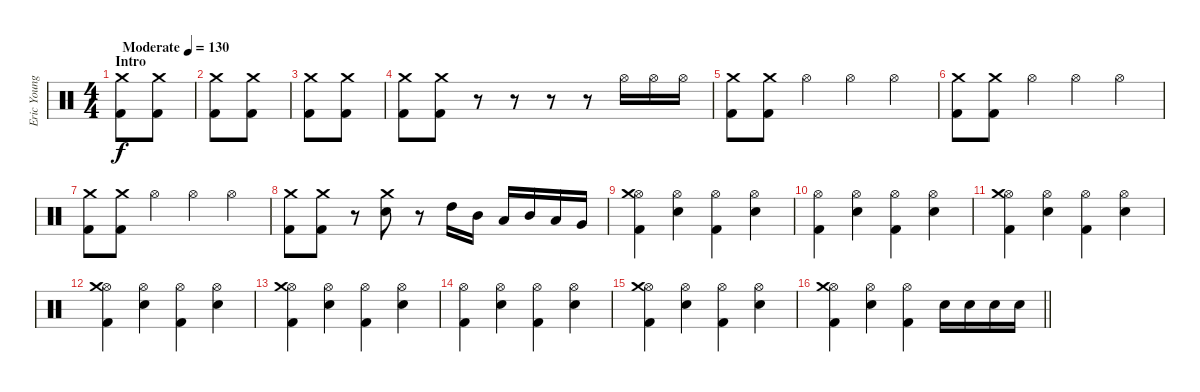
\track ("Eric Young (Drums)" "Eric Young") {instrument percussion}
\staff {score}
\articulation defaults
\ts (4 4)
\section ("" "Intro")
\tempo (130 "Moderate")
\clef neutral
\ks c
("Kick (hit) 2" "Crash medium (hit)").8{dy f} ("Kick (hit) 2" "Crash medium (hit)").8 |
("Kick (hit) 2" "Crash medium (hit)").8 ("Kick (hit) 2" "Crash medium (hit)").8 |
("Kick (hit) 2" "Crash medium (hit)").8 ("Kick (hit) 2" "Crash medium (hit)").8 |
("Kick (hit) 2" "Crash medium (hit)").8 ("Kick (hit) 2" "Crash medium (hit)").8 r.8 r.8 r.8 r.8 "Hi-Hat (open)".16 "Hi-Hat (open)".16 "Hi-Hat (open)".16 |
("Kick (hit) 2" "Crash medium (hit)").8 ("Kick (hit) 2" "Crash medium (hit)").8 "Hi-Hat (open)".4 "Hi-Hat (open)".4 "Hi-Hat (open)".4 |
("Kick (hit) 2" "Crash medium (hit)").8 ("Kick (hit) 2" "Crash medium (hit)").8 "Hi-Hat (open)".4 "Hi-Hat (open)".4 "Hi-Hat (open)".4 |
("Kick (hit) 2" "Crash medium (hit)").8 ("Kick (hit) 2" "Crash medium (hit)").8 "Hi-Hat (open)".4 "Hi-Hat (open)".4 "Hi-Hat (open)".4 |
("Kick (hit) 2" "Crash medium (hit)").8 ("Kick (hit) 2" "Crash medium (hit)").8 r.8 ("Snare (hit) 2" "Crash medium (hit)").8 r.8 "High Tom (hit)".16 "Mid Tom (hit)".16 "Low Tom (hit)".16 "Mid Tom (hit)".16 "Low Tom (hit)".16 "Very Low Tom (hit)".16 |
("Hi-Hat (open)" "Kick (hit) 2" "Crash medium (hit)").4 ("Hi-Hat (open)" "Snare (hit) 2").4 ("Hi-Hat (open)" "Kick (hit) 2").4 ("Hi-Hat (open)" "Snare (hit) 2").4 |
("Hi-Hat (open)" "Kick (hit) 2").4 ("Hi-Hat (open)" "Snare (hit) 2").4 ("Hi-Hat (open)" "Kick (hit) 2").4 ("Hi-Hat (open)" "Snare (hit) 2").4 |
("Hi-Hat (open)" "Kick (hit) 2" "Crash medium (hit)").4 ("Hi-Hat (open)" "Snare (hit) 2").4 ("Hi-Hat (open)" "Kick (hit) 2").4 ("Hi-Hat (open)" "Snare (hit) 2").4 |
("Hi-Hat (open)" "Kick (hit) 2" "Crash medium (hit)").4 ("Hi-Hat (open)" "Snare (hit) 2").4 ("Hi-Hat (open)" "Kick (hit) 2").4 ("Hi-Hat (open)" "Snare (hit) 2").4 |
("Hi-Hat (open)" "Kick (hit) 2" "Crash medium (hit)").4 ("Hi-Hat (open)" "Snare (hit) 2").4 ("Hi-Hat (open)" "Kick (hit) 2").4 ("Hi-Hat (open)" "Snare (hit) 2").4 |
("Hi-Hat (open)" "Kick (hit) 2").4 ("Hi-Hat (open)" "Snare (hit) 2").4 ("Hi-Hat (open)" "Kick (hit) 2").4 ("Hi-Hat (open)" "Snare (hit) 2").4 |
("Hi-Hat (open)" "Kick (hit) 2" "Crash medium (hit)").4 ("Hi-Hat (open)" "Snare (hit) 2").4 ("Hi-Hat (open)" "Kick (hit) 2").4 ("Hi-Hat (open)" "Snare (hit) 2").4 |
\barLineRight lightlight
("Hi-Hat (open)" "Kick (hit) 2" "Crash medium (hit)").4 ("Hi-Hat (open)" "Snare (hit) 2").4 ("Hi-Hat (open)" "Kick (hit) 2").4 "Snare (hit) 2".16 "Snare (hit) 2".16 "Snare (hit) 2".16 "Snare (hit) 2".16
